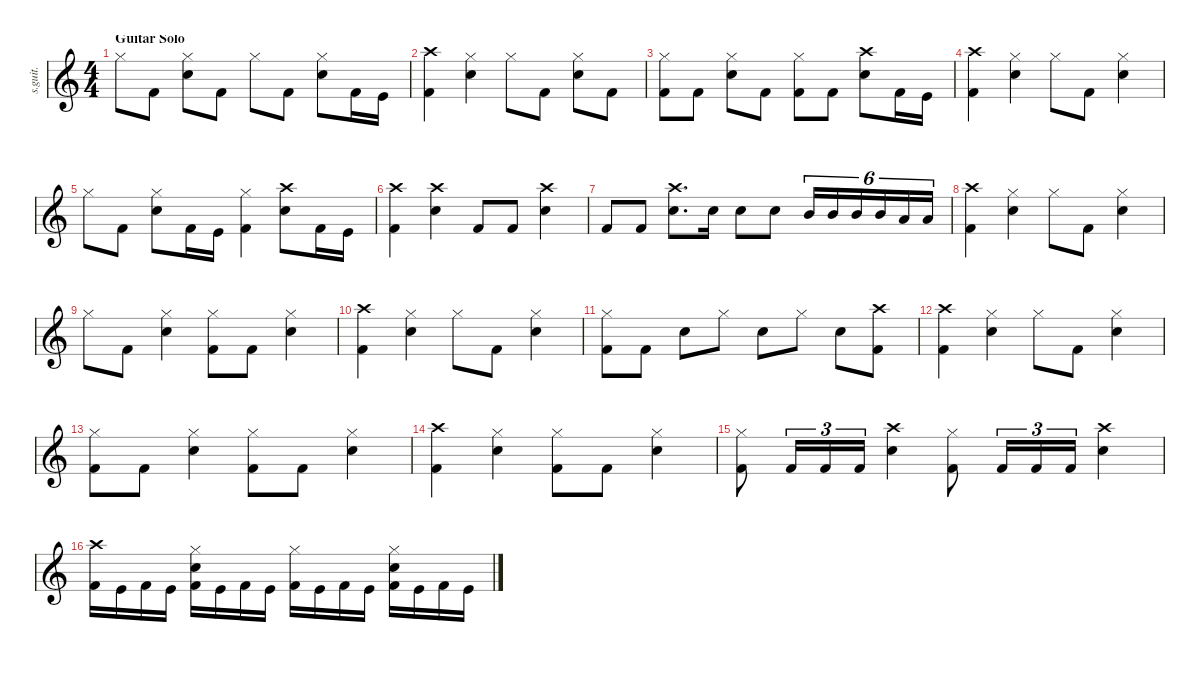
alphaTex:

\defaultSystemsLayout 4
\hideDynamics
\bracketExtendMode nobrackets
\track ("Lars Ulrich - Drumzzz" "s.guit.") {instrument percussion}
\staff {score}
\articulation defaults
\ts (4 4)
\section ("" "Guitar Solo")
\tempo (142 hide)
\clef g2
\ks c "Hi-Hat (closed)".8{lyrics (0 "") lyrics (1 "") lyrics (2 "") lyrics (3 "") lyrics (4 "") dy f} "Kick (hit) 2".8{lyrics (0 "") lyrics (1 "") lyrics (2 "") lyrics (3 "") lyrics (4 "")}
("Hi-Hat (closed)" "Snare (hit) 2").8{lyrics (0 "") lyrics (1 "") lyrics (2 "") lyrics (3 "") lyrics (4 "")} "Kick (hit) 2".8{lyrics (0 "") lyrics (1 "") lyrics (2 "") lyrics (3 "") lyrics (4 "")} "Hi-Hat (closed)".8{lyrics (0 "") lyrics (1 "") lyrics (2 "") lyrics (3 "") lyrics (4 "")} "Kick (hit) 2".8{lyrics (0 "") lyrics (1 "") lyrics (2 "") lyrics (3 "") lyrics (4 "")} ("Hi-Hat (closed)" "Snare (hit) 2").8{lyrics (0 "") lyrics (1 "") lyrics (2 "") lyrics (3 "") lyrics (4 "")} "Kick (hit) 2".16{lyrics (0 "") lyrics (1 "") lyrics (2 "") lyrics (3 "") lyrics (4 "")} "Kick (hit)".16{lyrics (0 "") lyrics (1 "") lyrics (2 "") lyrics (3 "") lyrics (4 "")} |
("Crash high (hit)" "Kick (hit) 2").4{lyrics (0 "") lyrics (1 "") lyrics (2 "") lyrics (3 "") lyrics (4 "")} ("Hi-Hat (closed)" "Snare (hit) 2").4{lyrics (0 "") lyrics (1 "") lyrics (2 "") lyrics (3 "") lyrics (4 "")} "Hi-Hat (closed)".8{lyrics (0 "") lyrics (1 "") lyrics (2 "") lyrics (3 "") lyrics (4 "")} "Kick (hit) 2".8{lyrics (0 "") lyrics (1 "") lyrics (2 "") lyrics (3 "") lyrics (4 "")} ("Hi-Hat (closed)" "Snare (hit) 2").8{lyrics (0 "") lyrics (1 "") lyrics (2 "") lyrics (3 "") lyrics (4 "")} "Kick (hit) 2".8{lyrics (0 "") lyrics (1 "") lyrics (2 "") lyrics (3 "") lyrics (4 "")} |
("Hi-Hat (closed)" "Kick (hit) 2").8{lyrics (0 "") lyrics (1 "") lyrics (2 "") lyrics (3 "") lyrics (4 "")} "Kick (hit) 2".8{lyrics (0 "") lyrics (1 "") lyrics (2 "") lyrics (3 "") lyrics (4 "")} ("Hi-Hat (closed)" "Snare (hit) 2").8{lyrics (0 "") lyrics (1 "") lyrics (2 "") lyrics (3 "") lyrics (4 "")} "Kick (hit) 2".8{lyrics (0 "") lyrics (1 "") lyrics (2 "") lyrics (3 "") lyrics (4 "")} ("Hi-Hat (closed)" "Kick (hit) 2").8{lyrics (0 "") lyrics (1 "") lyrics (2 "") lyrics (3 "") lyrics (4 "")} "Kick (hit) 2".8{lyrics (0 "") lyrics (1 "") lyrics (2 "") lyrics (3 "") lyrics (4 "")} ("Crash high (hit)" "Snare (hit) 2").8{lyrics (0 "") lyrics (1 "") lyrics (2 "") lyrics (3 "") lyrics (4 "")} "Kick (hit) 2".16{lyrics (0 "") lyrics (1 "") lyrics (2 "") lyrics (3 "") lyrics (4 "")} "Kick (hit)".16{lyrics (0 "") lyrics (1 "") lyrics (2 "") lyrics (3 "") lyrics (4 "")} |
("Crash high (hit)" "Kick (hit) 2").4{lyrics (0 "") lyrics (1 "") lyrics (2 "") lyrics (3 "") lyrics (4 "")} ("Hi-Hat (closed)" "Snare (hit) 2").4{lyrics (0 "") lyrics (1 "") lyrics (2 "") lyrics (3 "") lyrics (4 "")} "Hi-Hat (closed)".8{lyrics (0 "") lyrics (1 "") lyrics (2 "") lyrics (3 "") lyrics (4 "")} "Kick (hit) 2".8{lyrics (0 "") lyrics (1 "") lyrics (2 "") lyrics (3 "") lyrics (4 "")} ("Hi-Hat (closed)" "Snare (hit) 2").4{lyrics (0 "") lyrics (1 "") lyrics (2 "") lyrics (3 "") lyrics (4 "")} |
"Hi-Hat (closed)".8{lyrics (0 "") lyrics (1 "") lyrics (2 "") lyrics (3 "") lyrics (4 "")} "Kick (hit) 2".8{lyrics (0 "") lyrics (1 "") lyrics (2 "") lyrics (3 "") lyrics (4 "")} ("Hi-Hat (closed)" "Snare (hit) 2").8{lyrics (0 "") lyrics (1 "") lyrics (2 "") lyrics (3 "") lyrics (4 "")} "Kick (hit) 2".16{lyrics (0 "") lyrics (1 "") lyrics (2 "") lyrics (3 "") lyrics (4 "")} "Kick (hit)".16{lyrics (0 "") lyrics (1 "") lyrics (2 "") lyrics (3 "") lyrics (4 "")} ("Hi-Hat (closed)" "Kick (hit) 2").4{lyrics (0 "") lyrics (1 "") lyrics (2 "") lyrics (3 "") lyrics (4 "")} ("Crash high (hit)" "Snare (hit) 2").8{lyrics (0 "") lyrics (1 "") lyrics (2 "") lyrics (3 "") lyrics (4 "")} "Kick (hit) 2".16{lyrics (0 "") lyrics (1 "") lyrics (2 "") lyrics (3 "") lyrics (4 "")} "Kick (hit)".16{lyrics (0 "") lyrics (1 "") lyrics (2 "") lyrics (3 "") lyrics (4 "")} |
("Crash high (hit)" "Kick (hit) 2").4{lyrics (0 "") lyrics (1 "") lyrics (2 "") lyrics (3 "") lyrics (4 "")} ("Crash high (hit)" "Snare (hit) 2").4{lyrics (0 "") lyrics (1 "") lyrics (2 "") lyrics (3 "") lyrics (4 "")} "Kick (hit) 2".8{lyrics (0 "") lyrics (1 "") lyrics (2 "") lyrics (3 "") lyrics (4 "")} "Kick (hit) 2".8{lyrics (0 "") lyrics (1 "") lyrics (2 "") lyrics (3 "") lyrics (4 "")} ("Crash high (hit)" "Snare (hit) 2").4{lyrics (0 "") lyrics (1 "") lyrics (2 "") lyrics (3 "") lyrics (4 "")} |
"Kick (hit) 2".8{lyrics (0 "") lyrics (1 "") lyrics (2 "") lyrics (3 "") lyrics (4 "")} "Kick (hit) 2".8{lyrics (0 "") lyrics (1 "") lyrics (2 "") lyrics (3 "") lyrics (4 "")} ("Crash high (hit)" "Snare (hit) 2").8{d lyrics (0 "") lyrics (1 "") lyrics (2 "") lyrics (3 "") lyrics (4 "")} "Snare (hit) 2".16{lyrics (0 "") lyrics (1 "") lyrics (2 "") lyrics (3 "") lyrics (4 "")} "Snare (hit) 2".8{lyrics (0 "") lyrics (1 "") lyrics (2 "") lyrics (3 "") lyrics (4 "")} "Snare (hit) 2".8{lyrics (0 "") lyrics (1 "") lyrics (2 "") lyrics (3 "") lyrics (4 "")} "Mid Tom (hit)".16{tu (6 4) lyrics (0 "") lyrics (1 "") lyrics (2 "") lyrics (3 "") lyrics (4 "")} "Mid Tom (hit)".16{tu (6 4) lyrics (0 "") lyrics (1 "") lyrics (2 "") lyrics (3 "") lyrics (4 "")} "Mid Tom (hit)".16{tu (6 4) lyrics (0 "") lyrics (1 "") lyrics (2 "") lyrics (3 "") lyrics (4 "")} "Mid Tom (hit)".16{tu (6 4) lyrics (0 "") lyrics (1 "") lyrics (2 "") lyrics (3 "") lyrics (4 "")} "Low Tom (hit)".16{tu (6 4) lyrics (0 "") lyrics (1 "") lyrics (2 "") lyrics (3 "") lyrics (4 "")} "Low Tom (hit)".16{tu (6 4) lyrics (0 "") lyrics (1 "") lyrics (2 "") lyrics (3 "") lyrics (4 "")} |
("Crash high (hit)" "Kick (hit) 2").4{lyrics (0 "") lyrics (1 "") lyrics (2 "") lyrics (3 "") lyrics (4 "")} ("Hi-Hat (closed)" "Snare (hit) 2").4{lyrics (0 "") lyrics (1 "") lyrics (2 "") lyrics (3 "") lyrics (4 "")} "Hi-Hat (closed)".8{lyrics (0 "") lyrics (1 "") lyrics (2 "") lyrics (3 "") lyrics (4 "")} "Kick (hit) 2".8{lyrics (0 "") lyrics (1 "") lyrics (2 "") lyrics (3 "") lyrics (4 "")} ("Hi-Hat (closed)" "Snare (hit) 2").4{lyrics (0 "") lyrics (1 "") lyrics (2 "") lyrics (3 "") lyrics (4 "")} |
"Hi-Hat (closed)".8{lyrics (0 "") lyrics (1 "") lyrics (2 "") lyrics (3 "") lyrics (4 "")} "Kick (hit) 2".8{lyrics (0 "") lyrics (1 "") lyrics (2 "") lyrics (3 "") lyrics (4 "")} ("Hi-Hat (closed)" "Snare (hit) 2").4{lyrics (0 "") lyrics (1 "") lyrics (2 "") lyrics (3 "") lyrics (4 "")} ("Hi-Hat (closed)" "Kick (hit) 2").8{lyrics (0 "") lyrics (1 "") lyrics (2 "") lyrics (3 "") lyrics (4 "")} "Kick (hit) 2".8{lyrics (0 "") lyrics (1 "") lyrics (2 "") lyrics (3 "") lyrics (4 "")} ("Hi-Hat (closed)" "Snare (hit) 2").4{lyrics (0 "") lyrics (1 "") lyrics (2 "") lyrics (3 "") lyrics (4 "")} |
("Crash high (hit)" "Kick (hit) 2").4{lyrics (0 "") lyrics (1 "") lyrics (2 "") lyrics (3 "") lyrics (4 "")} ("Hi-Hat (closed)" "Snare (hit) 2").4{lyrics (0 "") lyrics (1 "") lyrics (2 "") lyrics (3 "") lyrics (4 "")} "Hi-Hat (closed)".8{lyrics (0 "") lyrics (1 "") lyrics (2 "") lyrics (3 "") lyrics (4 "")} "Kick (hit) 2".8{lyrics (0 "") lyrics (1 "") lyrics (2 "") lyrics (3 "") lyrics (4 "")} ("Hi-Hat (closed)" "Snare (hit) 2").4{lyrics (0 "") lyrics (1 "") lyrics (2 "") lyrics (3 "") lyrics (4 "")} |
("Hi-Hat (closed)" "Kick (hit) 2").8{lyrics (0 "") lyrics (1 "") lyrics (2 "") lyrics (3 "") lyrics (4 "")} "Kick (hit) 2".8{lyrics (0 "") lyrics (1 "") lyrics (2 "") lyrics (3 "") lyrics (4 "")} "Snare (hit) 2".8{lyrics (0 "") lyrics (1 "") lyrics (2 "") lyrics (3 "") lyrics (4 "")} "Hi-Hat (closed)".8{lyrics (0 "") lyrics (1 "") lyrics (2 "") lyrics (3 "") lyrics (4 "")} "Snare (hit) 2".8{lyrics (0 "") lyrics (1 "") lyrics (2 "") lyrics (3 "") lyrics (4 "")} "Hi-Hat (closed)".8{lyrics (0 "") lyrics (1 "") lyrics (2 "") lyrics (3 "") lyrics (4 "")} "Snare (hit) 2".8{lyrics (0 "") lyrics (1 "") lyrics (2 "") lyrics (3 "") lyrics (4 "")} ("Crash high (hit)" "Kick (hit) 2").8{lyrics (0 "") lyrics (1 "") lyrics (2 "") lyrics (3 "") lyrics (4 "")} |
("Crash high (hit)" "Kick (hit) 2").4{lyrics (0 "") lyrics (1 "") lyrics (2 "") lyrics (3 "") lyrics (4 "")} ("Hi-Hat (closed)" "Snare (hit) 2").4{lyrics (0 "") lyrics (1 "") lyrics (2 "") lyrics (3 "") lyrics (4 "")} "Hi-Hat (closed)".8{lyrics (0 "") lyrics (1 "") lyrics (2 "") lyrics (3 "") lyrics (4 "")} "Kick (hit) 2".8{lyrics (0 "") lyrics (1 "") lyrics (2 "") lyrics (3 "") lyrics (4 "")} ("Hi-Hat (closed)" "Snare (hit) 2").4{lyrics (0 "") lyrics (1 "") lyrics (2 "") lyrics (3 "") lyrics (4 "")} |
("Hi-Hat (closed)" "Kick (hit) 2").8{lyrics (0 "") lyrics (1 "") lyrics (2 "") lyrics (3 "") lyrics (4 "")} "Kick (hit) 2".8{lyrics (0 "") lyrics (1 "") lyrics (2 "") lyrics (3 "") lyrics (4 "")} ("Hi-Hat (closed)" "Snare (hit) 2").4{lyrics (0 "") lyrics (1 "") lyrics (2 "") lyrics (3 "") lyrics (4 "")} ("Hi-Hat (closed)" "Kick (hit) 2").8{lyrics (0 "") lyrics (1 "") lyrics (2 "") lyrics (3 "") lyrics (4 "")} "Kick (hit) 2".8{lyrics (0 "") lyrics (1 "") lyrics (2 "") lyrics (3 "") lyrics (4 "")} ("Hi-Hat (closed)" "Snare (hit) 2").4{lyrics (0 "") lyrics (1 "") lyrics (2 "") lyrics (3 "") lyrics (4 "")} |
("Crash high (hit)" "Kick (hit) 2").4{lyrics (0 "") lyrics (1 "") lyrics (2 "") lyrics (3 "") lyrics (4 "")} ("Hi-Hat (closed)" "Snare (hit) 2").4{lyrics (0 "") lyrics (1 "") lyrics (2 "") lyrics (3 "") lyrics (4 "")} ("Hi-Hat (closed)" "Kick (hit) 2").8{lyrics (0 "") lyrics (1 "") lyrics (2 "") lyrics (3 "") lyrics (4 "")} "Kick (hit) 2".8{lyrics (0 "") lyrics (1 "") lyrics (2 "") lyrics (3 "") lyrics (4 "")} ("Hi-Hat (closed)" "Snare (hit) 2").4{lyrics (0 "") lyrics (1 "") lyrics (2 "") lyrics (3 "") lyrics (4 "")} |
("Hi-Hat (closed)" "Kick (hit) 2").8{lyrics (0 "") lyrics (1 "") lyrics (2 "") lyrics (3 "") lyrics (4 "")} "Kick (hit) 2".16{tu (3 2) lyrics (0 "") lyrics (1 "") lyrics (2 "") lyrics (3 "") lyrics (4 "")} "Kick (hit) 2".16{tu (3 2) lyrics (0 "") lyrics (1 "") lyrics (2 "") lyrics (3 "") lyrics (4 "")} "Kick (hit) 2".16{tu (3 2) lyrics (0 "") lyrics (1 "") lyrics (2 "") lyrics (3 "") lyrics (4 "")} ("Crash high (hit)" "Snare (hit) 2").4{lyrics (0 "") lyrics (1 "") lyrics (2 "") lyrics (3 "") lyrics (4 "")} ("Hi-Hat (closed)" "Kick (hit) 2").8{lyrics (0 "") lyrics (1 "") lyrics (2 "") lyrics (3 "") lyrics (4 "")} "Kick (hit) 2".16{tu (3 2) lyrics (0 "") lyrics (1 "") lyrics (2 "") lyrics (3 "") lyrics (4 "")} "Kick (hit) 2".16{tu (3 2) lyrics (0 "") lyrics (1 "") lyrics (2 "") lyrics (3 "") lyrics (4 "")} "Kick (hit) 2".16{tu (3 2) lyrics (0 "") lyrics (1 "") lyrics (2 "") lyrics (3 "") lyrics (4 "")} ("Crash high (hit)" "Snare (hit) 2").4{lyrics (0 "") lyrics (1 "") lyrics (2 "") lyrics (3 "") lyrics (4 "")} |
("Crash high (hit)" "Kick (hit) 2").16{lyrics (0 "") lyrics (1 "") lyrics (2 "") lyrics (3 "") lyrics (4 "")} "Kick (hit)".16{lyrics (0 "") lyrics (1 "") lyrics (2 "") lyrics (3 "") lyrics (4 "")} "Kick (hit) 2".16{lyrics (0 "") lyrics (1 "") lyrics (2 "") lyrics (3 "") lyrics (4 "")} "Kick (hit)".16{lyrics (0 "") lyrics (1 "") lyrics (2 "") lyrics (3 "") lyrics (4 "")} ("Hi-Hat (closed)" "Snare (hit) 2" "Kick (hit) 2").16{lyrics (0 "") lyrics (1 "") lyrics (2 "") lyrics (3 "") lyrics (4 "")} "Kick (hit)".16{lyrics (0 "") lyrics (1 "") lyrics (2 "") lyrics (3 "") lyrics (4 "")} "Kick (hit) 2".16{lyrics (0 "") lyrics (1 "") lyrics (2 "") lyrics (3 "") lyrics (4 "")} "Kick (hit)".16{lyrics (0 "") lyrics (1 "") lyrics (2 "") lyrics (3 "") lyrics (4 "")} ("Hi-Hat (closed)" "Kick (hit) 2").16{lyrics (0 "") lyrics (1 "") lyrics (2 "") lyrics (3 "") lyrics (4 "")} "Kick (hit)".16{lyrics (0 "") lyrics (1 "") lyrics (2 "") lyrics (3 "") lyrics (4 "")} "Kick (hit) 2".16{lyrics (0 "") lyrics (1 "") lyrics (2 "") lyrics (3 "") lyrics (4 "")} "Kick (hit)".16{lyrics (0 "") lyrics (1 "") lyrics (2 "") lyrics (3 "") lyrics (4 "")} ("Hi-Hat (closed)" "Snare (hit) 2" "Kick (hit) 2").16{lyrics (0 "") lyrics (1 "") lyrics (2 "") lyrics (3 "") lyrics (4 "")} "Kick (hit)".16{lyrics (0 "") lyrics (1 "") lyrics (2 "") lyrics (3 "") lyrics (4 "")} "Kick (hit) 2".16{lyrics (0 "") lyrics (1 "") lyrics (2 "") lyrics (3 "") lyrics (4 "")} "Kick (hit)".16{lyrics (0 "") lyrics (1 "") lyrics (2 "") lyrics (3 "") lyrics (4 "")}
